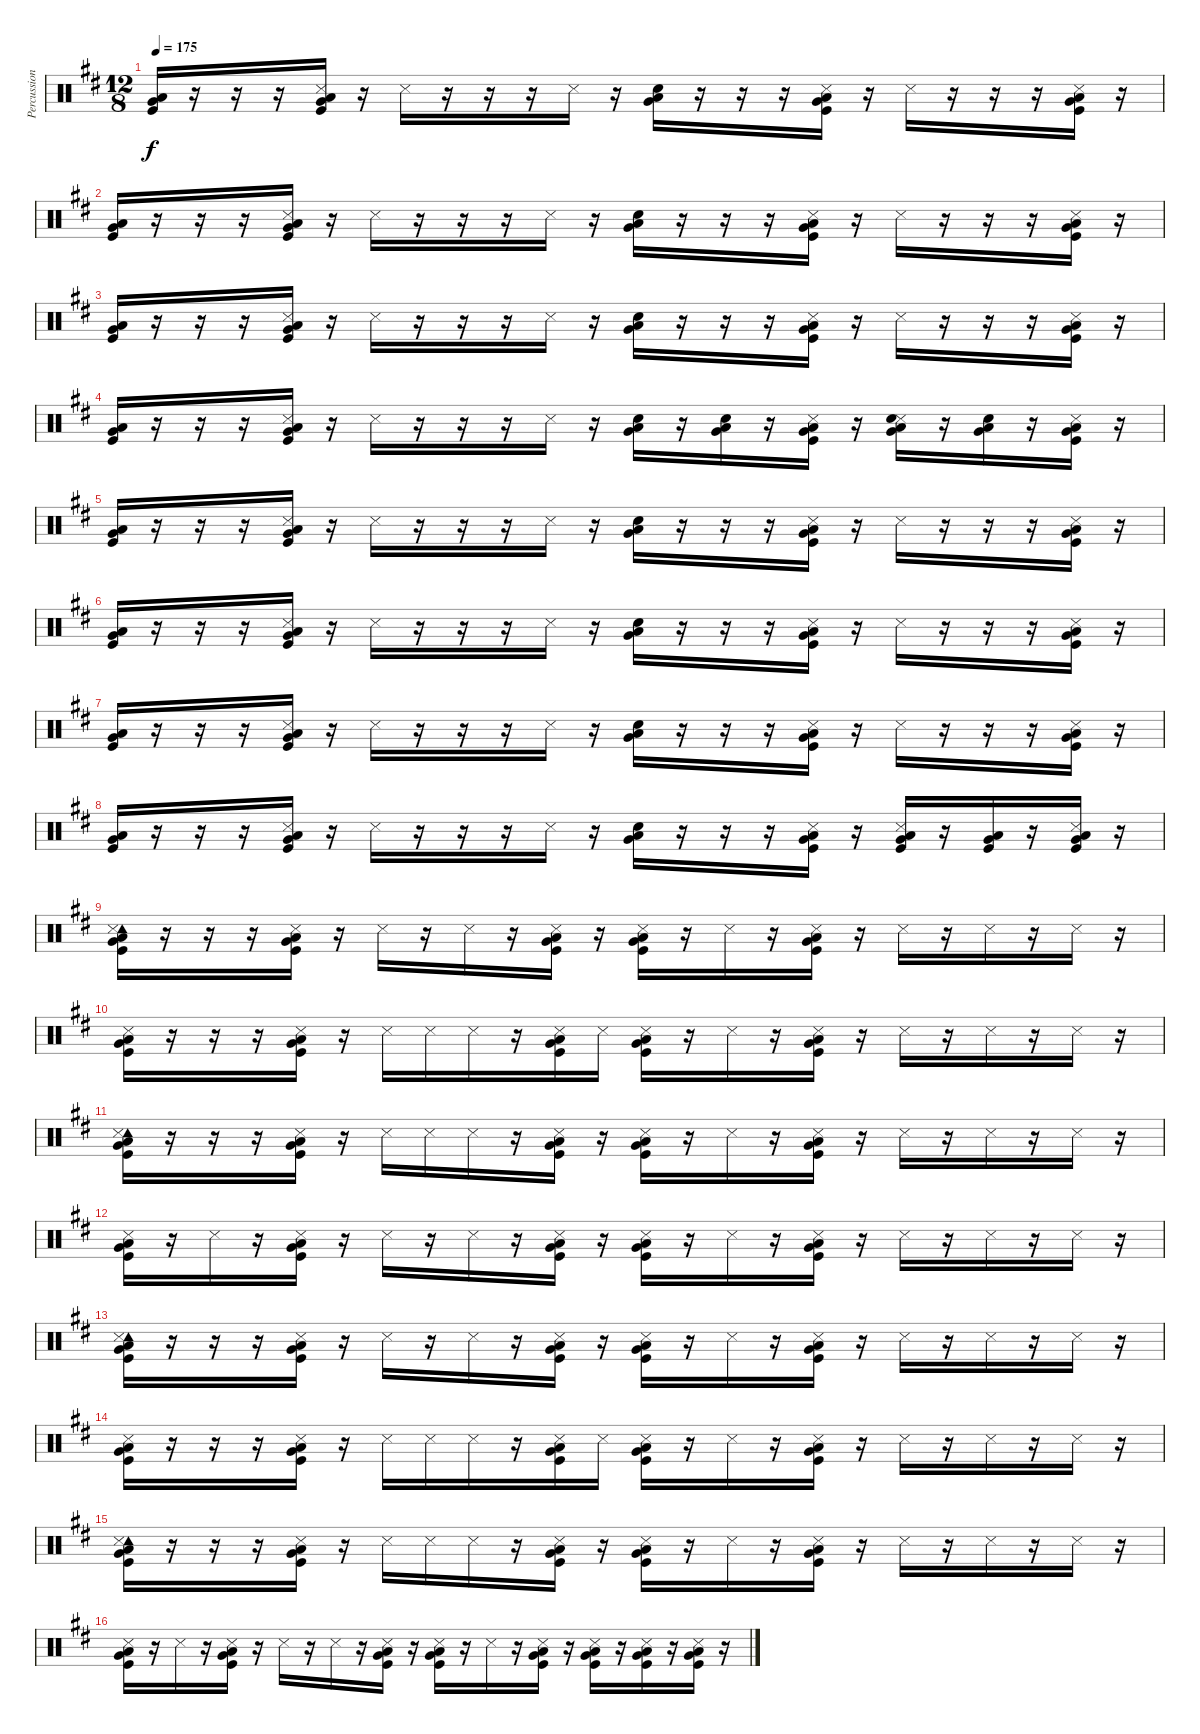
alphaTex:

\track ("Percussion" "Percussion") {instrument percussion}
\staff {score}
\articulation defaults
\ts (12 8)
\tempo 175
\clef neutral
\ks d
("Low Floor Tom (hit)" "Very Low Tom (hit)" "Kick (hit)").16{dy f} r.16 r.16 r.16 ("Snare (side stick) 3" "Low Floor Tom (hit)" "Very Low Tom (hit)" "Kick (hit)").16 r.16 "Snare (side stick) 3".16 r.16 r.16 r.16 "Snare (side stick) 3".16 r.16 ("Low Floor Tom (hit)" "Very Low Tom (hit)" "Snare (hit)").16 r.16 r.16 r.16 ("Snare (side stick) 3" "Low Floor Tom (hit)" "Very Low Tom (hit)" "Kick (hit)").16 r.16 "Snare (side stick) 3".16 r.16 r.16 r.16 ("Snare (side stick) 3" "Low Floor Tom (hit)" "Very Low Tom (hit)" "Kick (hit)").16 r.16 |
("Low Floor Tom (hit)" "Very Low Tom (hit)" "Kick (hit)").16 r.16 r.16 r.16 ("Snare (side stick) 3" "Low Floor Tom (hit)" "Very Low Tom (hit)" "Kick (hit)").16 r.16 "Snare (side stick) 3".16 r.16 r.16 r.16 "Snare (side stick) 3".16 r.16 ("Low Floor Tom (hit)" "Very Low Tom (hit)" "Snare (hit)").16 r.16 r.16 r.16 ("Snare (side stick) 3" "Low Floor Tom (hit)" "Very Low Tom (hit)" "Kick (hit)").16 r.16 "Snare (side stick) 3".16 r.16 r.16 r.16 ("Snare (side stick) 3" "Low Floor Tom (hit)" "Very Low Tom (hit)" "Kick (hit)").16 r.16 |
("Low Floor Tom (hit)" "Very Low Tom (hit)" "Kick (hit)").16 r.16 r.16 r.16 ("Snare (side stick) 3" "Low Floor Tom (hit)" "Very Low Tom (hit)" "Kick (hit)").16 r.16 "Snare (side stick) 3".16 r.16 r.16 r.16 "Snare (side stick) 3".16 r.16 ("Low Floor Tom (hit)" "Very Low Tom (hit)" "Snare (hit)").16 r.16 r.16 r.16 ("Snare (side stick) 3" "Low Floor Tom (hit)" "Very Low Tom (hit)" "Kick (hit)").16 r.16 "Snare (side stick) 3".16 r.16 r.16 r.16 ("Snare (side stick) 3" "Low Floor Tom (hit)" "Very Low Tom (hit)" "Kick (hit)").16 r.16 |
("Low Floor Tom (hit)" "Very Low Tom (hit)" "Kick (hit)").16 r.16 r.16 r.16 ("Snare (side stick) 3" "Low Floor Tom (hit)" "Very Low Tom (hit)" "Kick (hit)").16 r.16 "Snare (side stick) 3".16 r.16 r.16 r.16 "Snare (side stick) 3".16 r.16 ("Low Floor Tom (hit)" "Very Low Tom (hit)" "Snare (hit)").16 r.16 ("Low Floor Tom (hit)" "Very Low Tom (hit)" "Snare (hit)").16 r.16 ("Snare (side stick) 3" "Low Floor Tom (hit)" "Very Low Tom (hit)" "Kick (hit)").16 r.16 ("Snare (side stick) 3" "Low Floor Tom (hit)" "Very Low Tom (hit)" "Snare (hit)").16 r.16 ("Low Floor Tom (hit)" "Very Low Tom (hit)" "Snare (hit)").16 r.16 ("Snare (side stick) 3" "Low Floor Tom (hit)" "Very Low Tom (hit)" "Kick (hit)").16 r.16 |
("Low Floor Tom (hit)" "Very Low Tom (hit)" "Kick (hit)").16 r.16 r.16 r.16 ("Snare (side stick) 3" "Low Floor Tom (hit)" "Very Low Tom (hit)" "Kick (hit)").16 r.16 "Snare (side stick) 3".16 r.16 r.16 r.16 "Snare (side stick) 3".16 r.16 ("Low Floor Tom (hit)" "Very Low Tom (hit)" "Snare (hit)").16 r.16 r.16 r.16 ("Snare (side stick) 3" "Low Floor Tom (hit)" "Very Low Tom (hit)" "Kick (hit)").16 r.16 "Snare (side stick) 3".16 r.16 r.16 r.16 ("Snare (side stick) 3" "Low Floor Tom (hit)" "Very Low Tom (hit)" "Kick (hit)").16 r.16 |
("Low Floor Tom (hit)" "Very Low Tom (hit)" "Kick (hit)").16 r.16 r.16 r.16 ("Snare (side stick) 3" "Low Floor Tom (hit)" "Very Low Tom (hit)" "Kick (hit)").16 r.16 "Snare (side stick) 3".16 r.16 r.16 r.16 "Snare (side stick) 3".16 r.16 ("Low Floor Tom (hit)" "Very Low Tom (hit)" "Snare (hit)").16 r.16 r.16 r.16 ("Snare (side stick) 3" "Low Floor Tom (hit)" "Very Low Tom (hit)" "Kick (hit)").16 r.16 "Snare (side stick) 3".16 r.16 r.16 r.16 ("Snare (side stick) 3" "Low Floor Tom (hit)" "Very Low Tom (hit)" "Kick (hit)").16 r.16 |
("Low Floor Tom (hit)" "Very Low Tom (hit)" "Kick (hit)").16 r.16 r.16 r.16 ("Snare (side stick) 3" "Low Floor Tom (hit)" "Very Low Tom (hit)" "Kick (hit)").16 r.16 "Snare (side stick) 3".16 r.16 r.16 r.16 "Snare (side stick) 3".16 r.16 ("Low Floor Tom (hit)" "Very Low Tom (hit)" "Snare (hit)").16 r.16 r.16 r.16 ("Snare (side stick) 3" "Low Floor Tom (hit)" "Very Low Tom (hit)" "Kick (hit)").16 r.16 "Snare (side stick) 3".16 r.16 r.16 r.16 ("Snare (side stick) 3" "Low Floor Tom (hit)" "Very Low Tom (hit)" "Kick (hit)").16 r.16 |
("Low Floor Tom (hit)" "Very Low Tom (hit)" "Kick (hit)").16 r.16 r.16 r.16 ("Snare (side stick) 3" "Low Floor Tom (hit)" "Very Low Tom (hit)" "Kick (hit)").16 r.16 "Snare (side stick) 3".16 r.16 r.16 r.16 "Snare (side stick) 3".16 r.16 ("Low Floor Tom (hit)" "Very Low Tom (hit)" "Snare (hit)").16 r.16 r.16 r.16 ("Snare (side stick) 3" "Low Floor Tom (hit)" "Very Low Tom (hit)" "Kick (hit)").16 r.16 ("Snare (side stick) 3" "Low Floor Tom (hit)" "Very Low Tom (hit)" "Kick (hit)").16 r.16 ("Low Floor Tom (hit)" "Very Low Tom (hit)" "Kick (hit)").16 r.16 ("Snare (side stick) 3" "Low Floor Tom (hit)" "Very Low Tom (hit)" "Kick (hit)").16 r.16 |
("Tambourine (hit)" "Snare (side stick) 3" "Low Floor Tom (hit)" "Very Low Tom (hit)" "Kick (hit)").16 r.16 r.16 r.16 ("Snare (side stick) 3" "Low Floor Tom (hit)" "Very Low Tom (hit)" "Kick (hit)").16 r.16 "Snare (side stick) 3".16 r.16 "Snare (side stick) 3".16 r.16 ("Snare (side stick) 3" "Low Floor Tom (hit)" "Very Low Tom (hit)" "Kick (hit)").16 r.16 ("Snare (side stick) 3" "Low Floor Tom (hit)" "Very Low Tom (hit)" "Kick (hit)").16 r.16 "Snare (side stick) 3".16 r.16 ("Snare (side stick) 3" "Low Floor Tom (hit)" "Very Low Tom (hit)" "Kick (hit)").16 r.16 "Snare (side stick) 3".16 r.16 "Snare (side stick) 3".16 r.16 "Snare (side stick) 3".16 r.16 |
("Snare (side stick) 3" "Low Floor Tom (hit)" "Very Low Tom (hit)" "Kick (hit)").16 r.16 r.16 r.16 ("Snare (side stick) 3" "Low Floor Tom (hit)" "Very Low Tom (hit)" "Kick (hit)").16 r.16 "Snare (side stick) 3".16 "Snare (side stick) 3".16 "Snare (side stick) 3".16 r.16 ("Snare (side stick) 3" "Low Floor Tom (hit)" "Very Low Tom (hit)" "Kick (hit)").16 "Snare (side stick) 3".16 ("Snare (side stick) 3" "Low Floor Tom (hit)" "Very Low Tom (hit)" "Kick (hit)").16 r.16 "Snare (side stick) 3".16 r.16 ("Snare (side stick) 3" "Low Floor Tom (hit)" "Very Low Tom (hit)" "Kick (hit)").16 r.16 "Snare (side stick) 3".16 r.16 "Snare (side stick) 3".16 r.16 "Snare (side stick) 3".16 r.16 |
("Tambourine (hit)" "Snare (side stick) 3" "Low Floor Tom (hit)" "Very Low Tom (hit)" "Kick (hit)").16 r.16 r.16 r.16 ("Snare (side stick) 3" "Low Floor Tom (hit)" "Very Low Tom (hit)" "Kick (hit)").16 r.16 "Snare (side stick) 3".16 "Snare (side stick) 3".16 "Snare (side stick) 3".16 r.16 ("Snare (side stick) 3" "Low Floor Tom (hit)" "Very Low Tom (hit)" "Kick (hit)").16 r.16 ("Snare (side stick) 3" "Low Floor Tom (hit)" "Very Low Tom (hit)" "Kick (hit)").16 r.16 "Snare (side stick) 3".16 r.16 ("Snare (side stick) 3" "Low Floor Tom (hit)" "Very Low Tom (hit)" "Kick (hit)").16 r.16 "Snare (side stick) 3".16 r.16 "Snare (side stick) 3".16 r.16 "Snare (side stick) 3".16 r.16 |
("Snare (side stick) 3" "Low Floor Tom (hit)" "Very Low Tom (hit)" "Kick (hit)").16 r.16 "Snare (side stick) 3".16 r.16 ("Snare (side stick) 3" "Low Floor Tom (hit)" "Very Low Tom (hit)" "Kick (hit)").16 r.16 "Snare (side stick) 3".16 r.16 "Snare (side stick) 3".16 r.16 ("Snare (side stick) 3" "Low Floor Tom (hit)" "Very Low Tom (hit)" "Kick (hit)").16 r.16 ("Snare (side stick) 3" "Low Floor Tom (hit)" "Very Low Tom (hit)" "Kick (hit)").16 r.16 "Snare (side stick) 3".16 r.16 ("Snare (side stick) 3" "Low Floor Tom (hit)" "Very Low Tom (hit)" "Kick (hit)").16 r.16 "Snare (side stick) 3".16 r.16 "Snare (side stick) 3".16 r.16 "Snare (side stick) 3".16 r.16 |
("Tambourine (hit)" "Snare (side stick) 3" "Low Floor Tom (hit)" "Very Low Tom (hit)" "Kick (hit)").16 r.16 r.16 r.16 ("Snare (side stick) 3" "Low Floor Tom (hit)" "Very Low Tom (hit)" "Kick (hit)").16 r.16 "Snare (side stick) 3".16 r.16 "Snare (side stick) 3".16 r.16 ("Snare (side stick) 3" "Low Floor Tom (hit)" "Very Low Tom (hit)" "Kick (hit)").16 r.16 ("Snare (side stick) 3" "Low Floor Tom (hit)" "Very Low Tom (hit)" "Kick (hit)").16 r.16 "Snare (side stick) 3".16 r.16 ("Snare (side stick) 3" "Low Floor Tom (hit)" "Very Low Tom (hit)" "Kick (hit)").16 r.16 "Snare (side stick) 3".16 r.16 "Snare (side stick) 3".16 r.16 "Snare (side stick) 3".16 r.16 |
("Snare (side stick) 3" "Low Floor Tom (hit)" "Very Low Tom (hit)" "Kick (hit)").16 r.16 r.16 r.16 ("Snare (side stick) 3" "Low Floor Tom (hit)" "Very Low Tom (hit)" "Kick (hit)").16 r.16 "Snare (side stick) 3".16 "Snare (side stick) 3".16 "Snare (side stick) 3".16 r.16 ("Snare (side stick) 3" "Low Floor Tom (hit)" "Very Low Tom (hit)" "Kick (hit)").16 "Snare (side stick) 3".16 ("Snare (side stick) 3" "Low Floor Tom (hit)" "Very Low Tom (hit)" "Kick (hit)").16 r.16 "Snare (side stick) 3".16 r.16 ("Snare (side stick) 3" "Low Floor Tom (hit)" "Very Low Tom (hit)" "Kick (hit)").16 r.16 "Snare (side stick) 3".16 r.16 "Snare (side stick) 3".16 r.16 "Snare (side stick) 3".16 r.16 |
("Tambourine (hit)" "Snare (side stick) 3" "Low Floor Tom (hit)" "Very Low Tom (hit)" "Kick (hit)").16 r.16 r.16 r.16 ("Snare (side stick) 3" "Low Floor Tom (hit)" "Very Low Tom (hit)" "Kick (hit)").16 r.16 "Snare (side stick) 3".16 "Snare (side stick) 3".16 "Snare (side stick) 3".16 r.16 ("Snare (side stick) 3" "Low Floor Tom (hit)" "Very Low Tom (hit)" "Kick (hit)").16 r.16 ("Snare (side stick) 3" "Low Floor Tom (hit)" "Very Low Tom (hit)" "Kick (hit)").16 r.16 "Snare (side stick) 3".16 r.16 ("Snare (side stick) 3" "Low Floor Tom (hit)" "Very Low Tom (hit)" "Kick (hit)").16 r.16 "Snare (side stick) 3".16 r.16 "Snare (side stick) 3".16 r.16 "Snare (side stick) 3".16 r.16 |
("Snare (side stick) 3" "Low Floor Tom (hit)" "Very Low Tom (hit)" "Kick (hit)").16 r.16 "Snare (side stick) 3".16 r.16 ("Snare (side stick) 3" "Low Floor Tom (hit)" "Very Low Tom (hit)" "Kick (hit)").16 r.16 "Snare (side stick) 3".16 r.16 "Snare (side stick) 3".16 r.16 ("Snare (side stick) 3" "Low Floor Tom (hit)" "Very Low Tom (hit)" "Kick (hit)").16 r.16 ("Snare (side stick) 3" "Low Floor Tom (hit)" "Very Low Tom (hit)" "Kick (hit)").16 r.16 "Snare (side stick) 3".16 r.16 ("Snare (side stick) 3" "Low Floor Tom (hit)" "Very Low Tom (hit)" "Kick (hit)").16 r.16 ("Snare (side stick) 3" "Low Floor Tom (hit)" "Very Low Tom (hit)" "Kick (hit)").16 r.16 ("Snare (side stick) 3" "Low Floor Tom (hit)" "Very Low Tom (hit)" "Kick (hit)").16 r.16 ("Snare (side stick) 3" "Low Floor Tom (hit)" "Very Low Tom (hit)" "Kick (hit)").16 r.16
